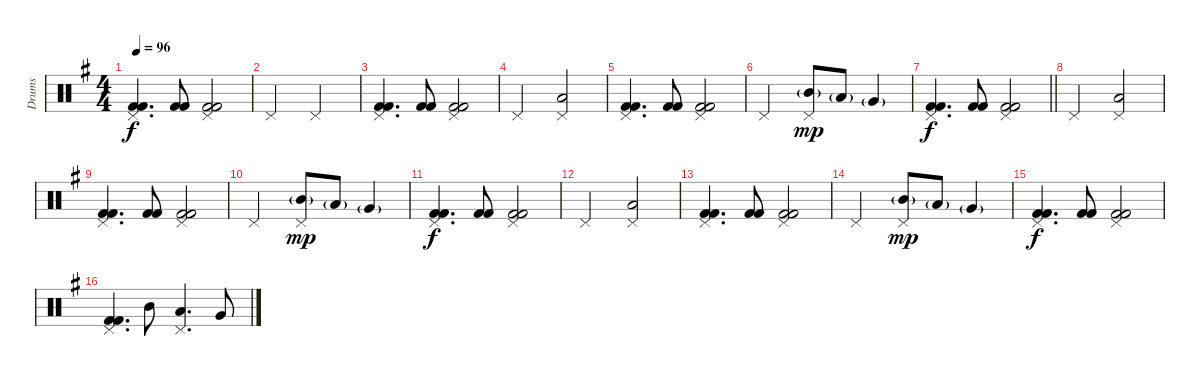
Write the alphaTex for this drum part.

\track ("Drums" "Drums") {instrument percussion}
\staff {score}
\articulation defaults
\ts (4 4)
\tempo 96
\clef neutral
\ks g
("Kick (hit) 2" "Kick (hit) 2" "Pedal Hi-Hat (hit)").4{d dy f} ("Kick (hit) 2" "Kick (hit) 2").8 ("Kick (hit) 2" "Kick (hit) 2" "Pedal Hi-Hat (hit)").2 |
"Pedal Hi-Hat (hit)".2 "Pedal Hi-Hat (hit)".2 |
("Kick (hit) 2" "Kick (hit) 2" "Pedal Hi-Hat (hit)").4{d} ("Kick (hit) 2" "Kick (hit) 2").8 ("Kick (hit) 2" "Kick (hit) 2" "Pedal Hi-Hat (hit)").2 |
"Pedal Hi-Hat (hit)".2 ("Low Tom (hit)" "Pedal Hi-Hat (hit)").2 |
("Kick (hit) 2" "Kick (hit) 2" "Pedal Hi-Hat (hit)").4{d} ("Kick (hit) 2" "Kick (hit) 2").8 ("Kick (hit) 2" "Kick (hit) 2" "Pedal Hi-Hat (hit)").2 |
"Pedal Hi-Hat (hit)".2 ("Mid Tom (hit)"{g} "Pedal Hi-Hat (hit)").8{dy mp} "Low Tom (hit)"{g}.8 "Very Low Tom (hit)"{g}.4 |
\barLineRight lightlight
("Kick (hit) 2" "Kick (hit) 2" "Pedal Hi-Hat (hit)").4{d dy f} ("Kick (hit) 2" "Kick (hit) 2").8 ("Kick (hit) 2" "Kick (hit) 2" "Pedal Hi-Hat (hit)").2 |
"Pedal Hi-Hat (hit)".2 ("Low Tom (hit)" "Pedal Hi-Hat (hit)").2 |
("Kick (hit) 2" "Kick (hit) 2" "Pedal Hi-Hat (hit)").4{d} ("Kick (hit) 2" "Kick (hit) 2").8 ("Kick (hit) 2" "Kick (hit) 2" "Pedal Hi-Hat (hit)").2 |
"Pedal Hi-Hat (hit)".2 ("Mid Tom (hit)"{g} "Pedal Hi-Hat (hit)").8{dy mp} "Low Tom (hit)"{g}.8 "Very Low Tom (hit)"{g}.4 |
("Kick (hit) 2" "Kick (hit) 2" "Pedal Hi-Hat (hit)").4{d dy f} ("Kick (hit) 2" "Kick (hit) 2").8 ("Kick (hit) 2" "Kick (hit) 2" "Pedal Hi-Hat (hit)").2 |
"Pedal Hi-Hat (hit)".2 ("Low Tom (hit)" "Pedal Hi-Hat (hit)").2 |
("Kick (hit) 2" "Kick (hit) 2" "Pedal Hi-Hat (hit)").4{d} ("Kick (hit) 2" "Kick (hit) 2").8 ("Kick (hit) 2" "Kick (hit) 2" "Pedal Hi-Hat (hit)").2 |
"Pedal Hi-Hat (hit)".2 ("Mid Tom (hit)"{g} "Pedal Hi-Hat (hit)").8{dy mp} "Low Tom (hit)"{g}.8 "Very Low Tom (hit)"{g}.4 |
("Kick (hit) 2" "Kick (hit) 2" "Pedal Hi-Hat (hit)").4{d dy f} ("Kick (hit) 2" "Kick (hit) 2").8 ("Kick (hit) 2" "Kick (hit) 2" "Pedal Hi-Hat (hit)").2 |
("Kick (hit) 2" "Kick (hit) 2" "Pedal Hi-Hat (hit)").4{d} "Mid Tom (hit)".8 ("Low Tom (hit)" "Pedal Hi-Hat (hit)").4{d} "Very Low Tom (hit)".8
